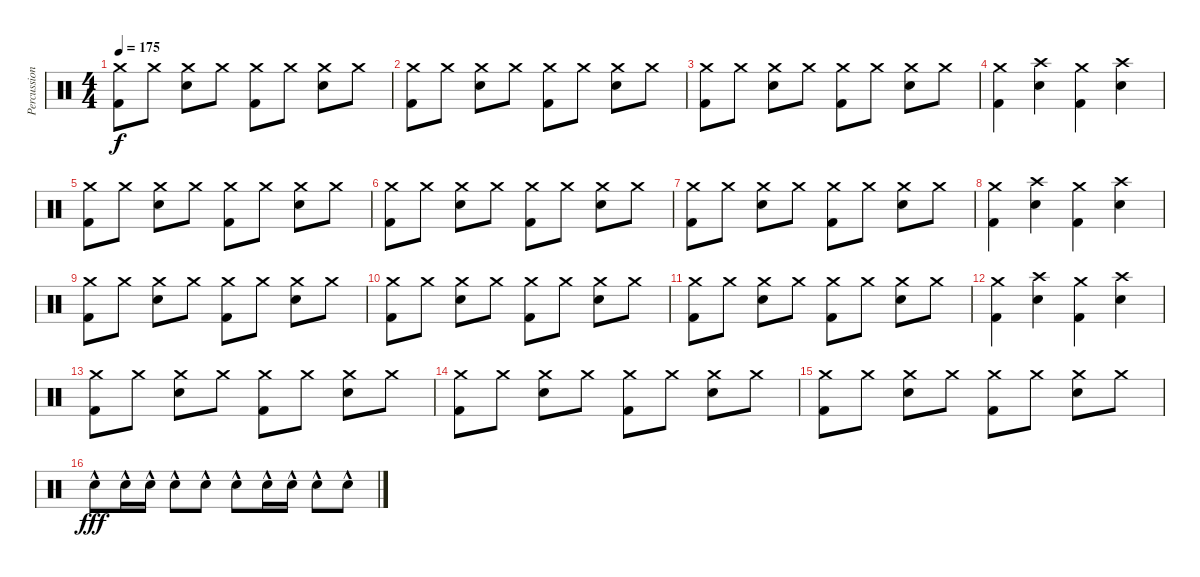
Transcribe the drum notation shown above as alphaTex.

\track ("Percussion" "Percussion") {instrument percussion}
\staff {score}
\articulation defaults
\ts (4 4)
\tempo 175
\clef neutral
\ks c
("Crash medium (hit)" "Kick (hit) 2").8{dy f} "Crash medium (hit)".8 ("Crash medium (hit)" "Snare (hit) 2").8 "Crash medium (hit)".8 ("Crash medium (hit)" "Kick (hit) 2").8 "Crash medium (hit)".8 ("Crash medium (hit)" "Snare (hit) 2").8 "Crash medium (hit)".8 |
("Crash medium (hit)" "Kick (hit) 2").8 "Crash medium (hit)".8 ("Crash medium (hit)" "Snare (hit) 2").8 "Crash medium (hit)".8 ("Crash medium (hit)" "Kick (hit) 2").8 "Crash medium (hit)".8 ("Crash medium (hit)" "Snare (hit) 2").8 "Crash medium (hit)".8 |
("Crash medium (hit)" "Kick (hit) 2").8 "Crash medium (hit)".8 ("Crash medium (hit)" "Snare (hit) 2").8 "Crash medium (hit)".8 ("Crash medium (hit)" "Kick (hit) 2").8 "Crash medium (hit)".8 ("Crash medium (hit)" "Snare (hit) 2").8 "Crash medium (hit)".8 |
("Crash medium (hit)" "Kick (hit) 2").4 ("Crash high (hit)" "Snare (hit) 2").4 ("Crash medium (hit)" "Kick (hit) 2").4 ("Crash high (hit)" "Snare (hit) 2").4 |
("Crash medium (hit)" "Kick (hit) 2").8 "Crash medium (hit)".8 ("Crash medium (hit)" "Snare (hit) 2").8 "Crash medium (hit)".8 ("Crash medium (hit)" "Kick (hit) 2").8 "Crash medium (hit)".8 ("Crash medium (hit)" "Snare (hit) 2").8 "Crash medium (hit)".8 |
("Crash medium (hit)" "Kick (hit) 2").8 "Crash medium (hit)".8 ("Crash medium (hit)" "Snare (hit) 2").8 "Crash medium (hit)".8 ("Crash medium (hit)" "Kick (hit) 2").8 "Crash medium (hit)".8 ("Crash medium (hit)" "Snare (hit) 2").8 "Crash medium (hit)".8 |
("Crash medium (hit)" "Kick (hit) 2").8 "Crash medium (hit)".8 ("Crash medium (hit)" "Snare (hit) 2").8 "Crash medium (hit)".8 ("Crash medium (hit)" "Kick (hit) 2").8 "Crash medium (hit)".8 ("Crash medium (hit)" "Snare (hit) 2").8 "Crash medium (hit)".8 |
("Crash medium (hit)" "Kick (hit) 2").4 ("Crash high (hit)" "Snare (hit) 2").4 ("Crash medium (hit)" "Kick (hit) 2").4 ("Crash high (hit)" "Snare (hit) 2").4 |
("Crash medium (hit)" "Kick (hit) 2").8 "Crash medium (hit)".8 ("Crash medium (hit)" "Snare (hit) 2").8 "Crash medium (hit)".8 ("Crash medium (hit)" "Kick (hit) 2").8 "Crash medium (hit)".8 ("Crash medium (hit)" "Snare (hit) 2").8 "Crash medium (hit)".8 |
("Crash medium (hit)" "Kick (hit) 2").8 "Crash medium (hit)".8 ("Crash medium (hit)" "Snare (hit) 2").8 "Crash medium (hit)".8 ("Crash medium (hit)" "Kick (hit) 2").8 "Crash medium (hit)".8 ("Crash medium (hit)" "Snare (hit) 2").8 "Crash medium (hit)".8 |
("Crash medium (hit)" "Kick (hit) 2").8 "Crash medium (hit)".8 ("Crash medium (hit)" "Snare (hit) 2").8 "Crash medium (hit)".8 ("Crash medium (hit)" "Kick (hit) 2").8 "Crash medium (hit)".8 ("Crash medium (hit)" "Snare (hit) 2").8 "Crash medium (hit)".8 |
("Crash medium (hit)" "Kick (hit) 2").4 ("Crash high (hit)" "Snare (hit) 2").4 ("Crash medium (hit)" "Kick (hit) 2").4 ("Crash high (hit)" "Snare (hit) 2").4 |
("Crash medium (hit)" "Kick (hit) 2").8 "Crash medium (hit)".8 ("Crash medium (hit)" "Snare (hit) 2").8 "Crash medium (hit)".8 ("Crash medium (hit)" "Kick (hit) 2").8 "Crash medium (hit)".8 ("Crash medium (hit)" "Snare (hit) 2").8 "Crash medium (hit)".8 |
("Crash medium (hit)" "Kick (hit) 2").8 "Crash medium (hit)".8 ("Crash medium (hit)" "Snare (hit) 2").8 "Crash medium (hit)".8 ("Crash medium (hit)" "Kick (hit) 2").8 "Crash medium (hit)".8 ("Crash medium (hit)" "Snare (hit) 2").8 "Crash medium (hit)".8 |
("Crash medium (hit)" "Kick (hit) 2").8 "Crash medium (hit)".8 ("Crash medium (hit)" "Snare (hit) 2").8 "Crash medium (hit)".8 ("Crash medium (hit)" "Kick (hit) 2").8 "Crash medium (hit)".8 ("Crash medium (hit)" "Snare (hit) 2").8 "Crash medium (hit)".8 |
"Snare (hit) 2"{hac}.8{dy fff} "Snare (hit) 2"{hac}.16 "Snare (hit) 2"{hac}.16 "Snare (hit) 2"{hac}.8 "Snare (hit) 2"{hac}.8 "Snare (hit) 2"{hac}.8 "Snare (hit) 2"{hac}.16 "Snare (hit) 2"{hac}.16 "Snare (hit) 2"{hac}.8 "Snare (hit) 2"{hac}.8
